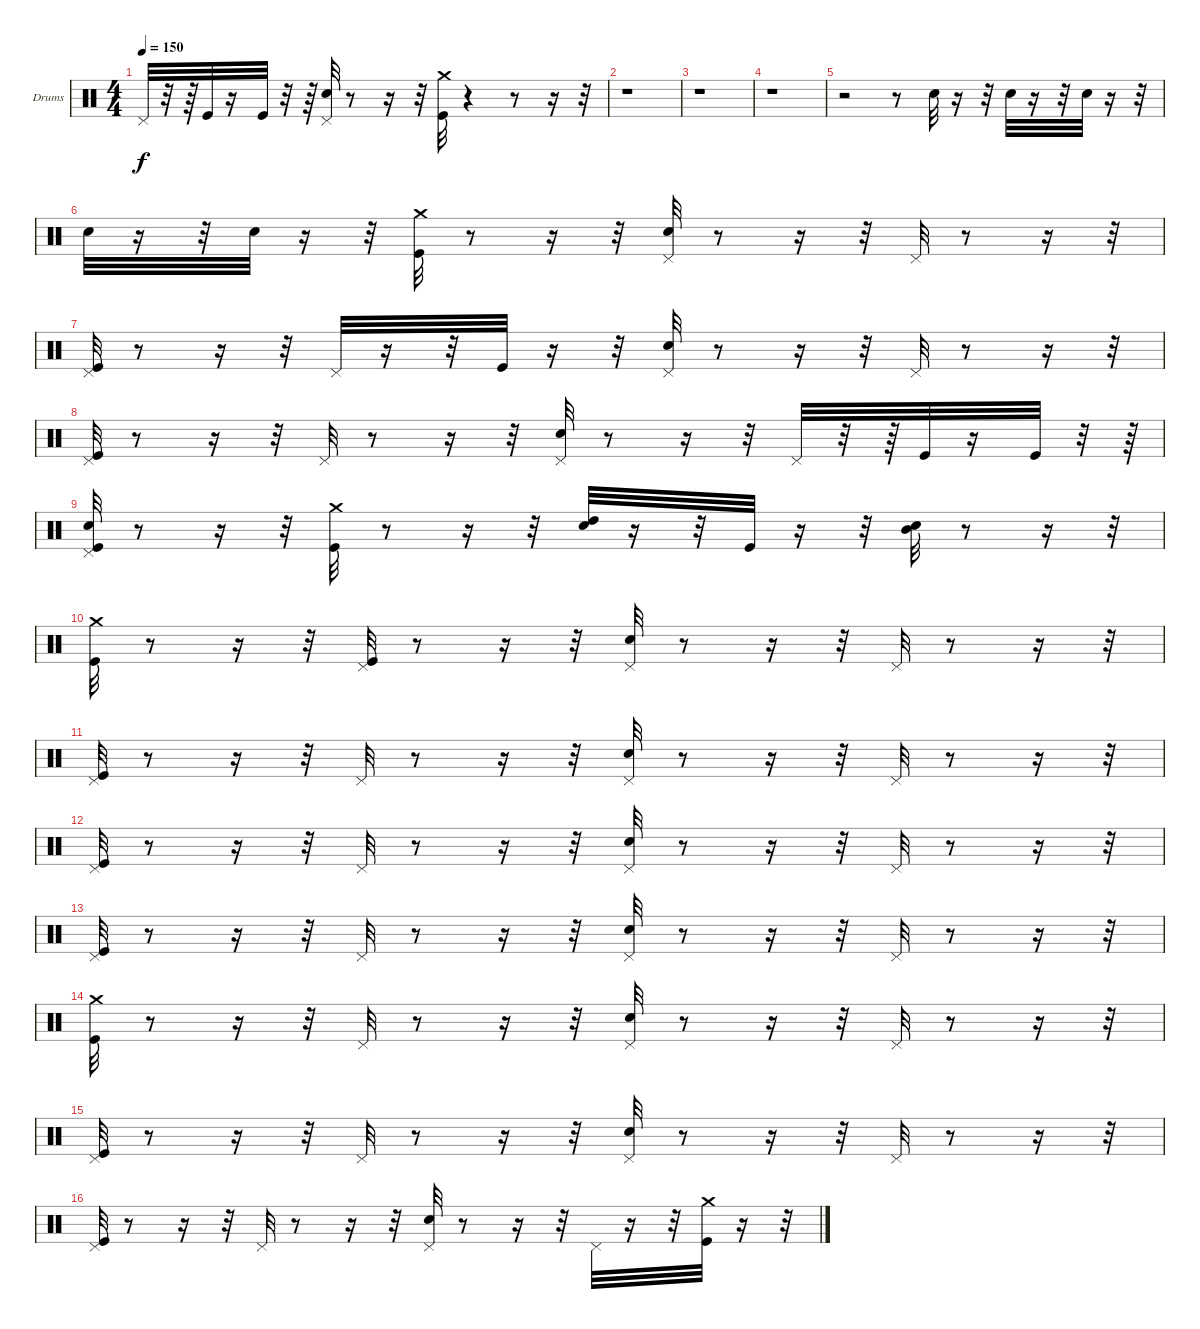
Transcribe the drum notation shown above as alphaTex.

\bracketExtendMode groupsimilarinstruments
\firstSystemTrackNameOrientation horizontal
\otherSystemsTrackNameOrientation horizontal
\track ("Drumkit" "Drums") {instrument percussion}
\staff {score}
\articulation defaults
\ts (4 4)
\tempo 150
\clef neutral
\ks c "Pedal Hi-Hat (hit)".32{dy f}
r.32 r.64 "Kick (hit)".32 r.16 "Kick (hit)".32 r.32 r.64 ("Pedal Hi-Hat (hit)" "Snare (hit) 2").32 r.8 r.16 r.32 ("Crash medium (hit)" "Kick (hit)").32 r.4 r.8 r.16 r.32 |
r.1 |
r.1 |
r.1 |
r.2 r.8 "Snare (hit) 2".32 r.16 r.32 "Snare (hit) 2".32 r.16 r.32 "Snare (hit) 2".32 r.16 r.32 |
"Snare (hit) 2".32 r.16 r.32 "Snare (hit) 2".32 r.16 r.32 ("Crash medium (hit)" "Kick (hit)").32 r.8 r.16 r.32 ("Pedal Hi-Hat (hit)" "Snare (hit) 2").32 r.8 r.16 r.32 "Pedal Hi-Hat (hit)".32 r.8 r.16 r.32 |
("Pedal Hi-Hat (hit)" "Kick (hit)").32 r.8 r.16 r.32 "Pedal Hi-Hat (hit)".32 r.16 r.32 "Kick (hit)".32 r.16 r.32 ("Pedal Hi-Hat (hit)" "Snare (hit) 2").32 r.8 r.16 r.32 "Pedal Hi-Hat (hit)".32 r.8 r.16 r.32 |
("Pedal Hi-Hat (hit)" "Kick (hit)").32 r.8 r.16 r.32 "Pedal Hi-Hat (hit)".32 r.8 r.16 r.32 ("Pedal Hi-Hat (hit)" "Snare (hit) 2").32 r.8 r.16 r.32 "Pedal Hi-Hat (hit)".32 r.32 r.64 "Kick (hit)".32 r.16 "Kick (hit)".32 r.32 r.64 |
("Pedal Hi-Hat (hit)" "Snare (hit) 2" "Kick (hit)").32 r.8 r.16 r.32 ("Kick (hit)" "Crash medium (hit)").32 r.8 r.16 r.32 ("High Tom (hit)" "Snare (hit) 2").32 r.16 r.32 "Kick (hit)".32 r.16 r.32 ("Mid Tom (hit)" "Snare (hit) 2").32 r.8 r.16 r.32 |
("Crash medium (hit)" "Kick (hit)").32 r.8 r.16 r.32 ("Pedal Hi-Hat (hit)" "Kick (hit)").32 r.8 r.16 r.32 ("Pedal Hi-Hat (hit)" "Snare (hit) 2").32 r.8 r.16 r.32 "Pedal Hi-Hat (hit)".32 r.8 r.16 r.32 |
("Kick (hit)" "Pedal Hi-Hat (hit)").32 r.8 r.16 r.32 "Pedal Hi-Hat (hit)".32 r.8 r.16 r.32 ("Snare (hit) 2" "Pedal Hi-Hat (hit)").32 r.8 r.16 r.32 "Pedal Hi-Hat (hit)".32 r.8 r.16 r.32 |
("Kick (hit)" "Pedal Hi-Hat (hit)").32 r.8 r.16 r.32 "Pedal Hi-Hat (hit)".32 r.8 r.16 r.32 ("Snare (hit) 2" "Pedal Hi-Hat (hit)").32 r.8 r.16 r.32 "Pedal Hi-Hat (hit)".32 r.8 r.16 r.32 |
("Kick (hit)" "Pedal Hi-Hat (hit)").32 r.8 r.16 r.32 "Pedal Hi-Hat (hit)".32 r.8 r.16 r.32 ("Snare (hit) 2" "Pedal Hi-Hat (hit)").32 r.8 r.16 r.32 "Pedal Hi-Hat (hit)".32 r.8 r.16 r.32 |
("Crash medium (hit)" "Kick (hit)").32 r.8 r.16 r.32 "Pedal Hi-Hat (hit)".32 r.8 r.16 r.32 ("Pedal Hi-Hat (hit)" "Snare (hit) 2").32 r.8 r.16 r.32 "Pedal Hi-Hat (hit)".32 r.8 r.16 r.32 |
("Kick (hit)" "Pedal Hi-Hat (hit)").32 r.8 r.16 r.32 "Pedal Hi-Hat (hit)".32 r.8 r.16 r.32 ("Snare (hit) 2" "Pedal Hi-Hat (hit)").32 r.8 r.16 r.32 "Pedal Hi-Hat (hit)".32 r.8 r.16 r.32 |
("Pedal Hi-Hat (hit)" "Kick (hit)").32 r.8 r.16 r.32 "Pedal Hi-Hat (hit)".32 r.8 r.16 r.32 ("Pedal Hi-Hat (hit)" "Snare (hit) 2").32 r.8 r.16 r.32 "Pedal Hi-Hat (hit)".32 r.16 r.32 ("Crash medium (hit)" "Kick (hit)").32 r.16 r.32
